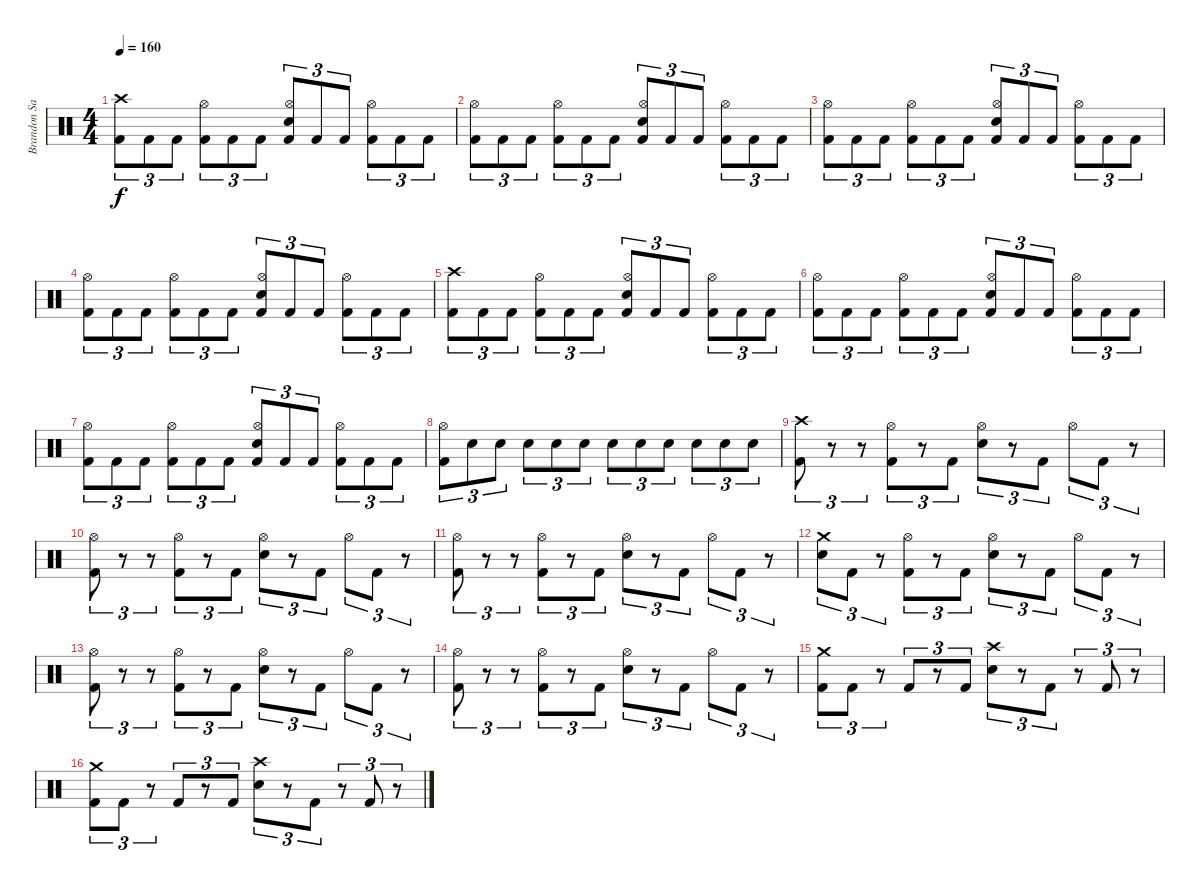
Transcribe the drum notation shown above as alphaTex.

\track ("Brandon Saller" "Brandon Sa") {instrument percussion}
\staff {score}
\articulation defaults
\ts (4 4)
\tempo 160
\clef neutral
\ks c
("Crash high (hit)" "Kick (hit) 2").8{tu (3 2) dy f} "Kick (hit) 2".8{tu (3 2)} "Kick (hit) 2".8{tu (3 2)} ("Hi-Hat (open)" "Kick (hit) 2").8{tu (3 2)} "Kick (hit) 2".8{tu (3 2)} "Kick (hit) 2".8{tu (3 2)} ("Hi-Hat (open)" "Snare (hit) 2" "Kick (hit) 2").8{tu (3 2)} "Kick (hit) 2".8{tu (3 2)} "Kick (hit) 2".8{tu (3 2)} ("Hi-Hat (open)" "Kick (hit) 2").8{tu (3 2)} "Kick (hit) 2".8{tu (3 2)} "Kick (hit) 2".8{tu (3 2)} |
("Hi-Hat (open)" "Kick (hit) 2").8{tu (3 2)} "Kick (hit) 2".8{tu (3 2)} "Kick (hit) 2".8{tu (3 2)} ("Hi-Hat (open)" "Kick (hit) 2").8{tu (3 2)} "Kick (hit) 2".8{tu (3 2)} "Kick (hit) 2".8{tu (3 2)} ("Hi-Hat (open)" "Snare (hit) 2" "Kick (hit) 2").8{tu (3 2)} "Kick (hit) 2".8{tu (3 2)} "Kick (hit) 2".8{tu (3 2)} ("Hi-Hat (open)" "Kick (hit) 2").8{tu (3 2)} "Kick (hit) 2".8{tu (3 2)} "Kick (hit) 2".8{tu (3 2)} |
("Hi-Hat (open)" "Kick (hit) 2").8{tu (3 2)} "Kick (hit) 2".8{tu (3 2)} "Kick (hit) 2".8{tu (3 2)} ("Hi-Hat (open)" "Kick (hit) 2").8{tu (3 2)} "Kick (hit) 2".8{tu (3 2)} "Kick (hit) 2".8{tu (3 2)} ("Hi-Hat (open)" "Snare (hit) 2" "Kick (hit) 2").8{tu (3 2)} "Kick (hit) 2".8{tu (3 2)} "Kick (hit) 2".8{tu (3 2)} ("Hi-Hat (open)" "Kick (hit) 2").8{tu (3 2)} "Kick (hit) 2".8{tu (3 2)} "Kick (hit) 2".8{tu (3 2)} |
("Hi-Hat (open)" "Kick (hit) 2").8{tu (3 2)} "Kick (hit) 2".8{tu (3 2)} "Kick (hit) 2".8{tu (3 2)} ("Hi-Hat (open)" "Kick (hit) 2").8{tu (3 2)} "Kick (hit) 2".8{tu (3 2)} "Kick (hit) 2".8{tu (3 2)} ("Hi-Hat (open)" "Snare (hit) 2" "Kick (hit) 2").8{tu (3 2)} "Kick (hit) 2".8{tu (3 2)} "Kick (hit) 2".8{tu (3 2)} ("Hi-Hat (open)" "Kick (hit) 2").8{tu (3 2)} "Kick (hit) 2".8{tu (3 2)} "Kick (hit) 2".8{tu (3 2)} |
("Crash high (hit)" "Kick (hit) 2").8{tu (3 2)} "Kick (hit) 2".8{tu (3 2)} "Kick (hit) 2".8{tu (3 2)} ("Hi-Hat (open)" "Kick (hit) 2").8{tu (3 2)} "Kick (hit) 2".8{tu (3 2)} "Kick (hit) 2".8{tu (3 2)} ("Hi-Hat (open)" "Snare (hit) 2" "Kick (hit) 2").8{tu (3 2)} "Kick (hit) 2".8{tu (3 2)} "Kick (hit) 2".8{tu (3 2)} ("Hi-Hat (open)" "Kick (hit) 2").8{tu (3 2)} "Kick (hit) 2".8{tu (3 2)} "Kick (hit) 2".8{tu (3 2)} |
("Hi-Hat (open)" "Kick (hit) 2").8{tu (3 2)} "Kick (hit) 2".8{tu (3 2)} "Kick (hit) 2".8{tu (3 2)} ("Hi-Hat (open)" "Kick (hit) 2").8{tu (3 2)} "Kick (hit) 2".8{tu (3 2)} "Kick (hit) 2".8{tu (3 2)} ("Hi-Hat (open)" "Snare (hit) 2" "Kick (hit) 2").8{tu (3 2)} "Kick (hit) 2".8{tu (3 2)} "Kick (hit) 2".8{tu (3 2)} ("Hi-Hat (open)" "Kick (hit) 2").8{tu (3 2)} "Kick (hit) 2".8{tu (3 2)} "Kick (hit) 2".8{tu (3 2)} |
("Hi-Hat (open)" "Kick (hit) 2").8{tu (3 2)} "Kick (hit) 2".8{tu (3 2)} "Kick (hit) 2".8{tu (3 2)} ("Hi-Hat (open)" "Kick (hit) 2").8{tu (3 2)} "Kick (hit) 2".8{tu (3 2)} "Kick (hit) 2".8{tu (3 2)} ("Hi-Hat (open)" "Snare (hit) 2" "Kick (hit) 2").8{tu (3 2)} "Kick (hit) 2".8{tu (3 2)} "Kick (hit) 2".8{tu (3 2)} ("Hi-Hat (open)" "Kick (hit) 2").8{tu (3 2)} "Kick (hit) 2".8{tu (3 2)} "Kick (hit) 2".8{tu (3 2)} |
("Hi-Hat (open)" "Kick (hit) 2").8{tu (3 2)} "Snare (hit) 2".8{tu (3 2)} "Snare (hit) 2".8{tu (3 2)} "Snare (hit) 2".8{tu (3 2)} "Snare (hit) 2".8{tu (3 2)} "Snare (hit) 2".8{tu (3 2)} "Snare (hit) 2".8{tu (3 2)} "Snare (hit) 2".8{tu (3 2)} "Snare (hit) 2".8{tu (3 2)} "Snare (hit) 2".8{tu (3 2)} "Snare (hit) 2".8{tu (3 2)} "Snare (hit) 2".8{tu (3 2)} |
("Crash high (hit)" "Kick (hit) 2").8{tu (3 2)} r.8{tu (3 2)} r.8{tu (3 2)} ("Hi-Hat (open)" "Kick (hit) 2").8{tu (3 2)} r.8{tu (3 2)} "Kick (hit) 2".8{tu (3 2)} ("Hi-Hat (open)" "Snare (hit) 2").8{tu (3 2)} r.8{tu (3 2)} "Kick (hit) 2".8{tu (3 2)} "Hi-Hat (open)".8{tu (3 2)} "Kick (hit) 2".8{tu (3 2)} r.8{tu (3 2)} |
("Hi-Hat (open)" "Kick (hit) 2").8{tu (3 2)} r.8{tu (3 2)} r.8{tu (3 2)} ("Hi-Hat (open)" "Kick (hit) 2").8{tu (3 2)} r.8{tu (3 2)} "Kick (hit) 2".8{tu (3 2)} ("Hi-Hat (open)" "Snare (hit) 2").8{tu (3 2)} r.8{tu (3 2)} "Kick (hit) 2".8{tu (3 2)} "Hi-Hat (open)".8{tu (3 2)} "Kick (hit) 2".8{tu (3 2)} r.8{tu (3 2)} |
("Hi-Hat (open)" "Kick (hit) 2").8{tu (3 2)} r.8{tu (3 2)} r.8{tu (3 2)} ("Hi-Hat (open)" "Kick (hit) 2").8{tu (3 2)} r.8{tu (3 2)} "Kick (hit) 2".8{tu (3 2)} ("Hi-Hat (open)" "Snare (hit) 2").8{tu (3 2)} r.8{tu (3 2)} "Kick (hit) 2".8{tu (3 2)} "Hi-Hat (open)".8{tu (3 2)} "Kick (hit) 2".8{tu (3 2)} r.8{tu (3 2)} |
("Crash medium (hit)" "Snare (hit) 2").8{tu (3 2)} "Kick (hit) 2".8{tu (3 2)} r.8{tu (3 2)} ("Hi-Hat (open)" "Kick (hit) 2").8{tu (3 2)} r.8{tu (3 2)} "Kick (hit) 2".8{tu (3 2)} ("Hi-Hat (open)" "Snare (hit) 2").8{tu (3 2)} r.8{tu (3 2)} "Kick (hit) 2".8{tu (3 2)} "Hi-Hat (open)".8{tu (3 2)} "Kick (hit) 2".8{tu (3 2)} r.8{tu (3 2)} |
("Hi-Hat (open)" "Kick (hit) 2").8{tu (3 2)} r.8{tu (3 2)} r.8{tu (3 2)} ("Hi-Hat (open)" "Kick (hit) 2").8{tu (3 2)} r.8{tu (3 2)} "Kick (hit) 2".8{tu (3 2)} ("Hi-Hat (open)" "Snare (hit) 2").8{tu (3 2)} r.8{tu (3 2)} "Kick (hit) 2".8{tu (3 2)} "Hi-Hat (open)".8{tu (3 2)} "Kick (hit) 2".8{tu (3 2)} r.8{tu (3 2)} |
("Hi-Hat (open)" "Kick (hit) 2").8{tu (3 2)} r.8{tu (3 2)} r.8{tu (3 2)} ("Hi-Hat (open)" "Kick (hit) 2").8{tu (3 2)} r.8{tu (3 2)} "Kick (hit) 2".8{tu (3 2)} ("Hi-Hat (open)" "Snare (hit) 2").8{tu (3 2)} r.8{tu (3 2)} "Kick (hit) 2".8{tu (3 2)} "Hi-Hat (open)".8{tu (3 2)} "Kick (hit) 2".8{tu (3 2)} r.8{tu (3 2)} |
("Crash medium (hit)" "Kick (hit) 2").8{tu (3 2)} "Kick (hit) 2".8{tu (3 2)} r.8{tu (3 2)} "Kick (hit) 2".8{tu (3 2)} r.8{tu (3 2)} "Kick (hit) 2".8{tu (3 2)} ("Crash high (hit)" "Snare (hit) 2").8{tu (3 2)} r.8{tu (3 2)} "Kick (hit) 2".8{tu (3 2)} r.8{tu (3 2)} "Kick (hit) 2".8{tu (3 2)} r.8{tu (3 2)} |
("Crash medium (hit)" "Kick (hit) 2").8{tu (3 2)} "Kick (hit) 2".8{tu (3 2)} r.8{tu (3 2)} "Kick (hit) 2".8{tu (3 2)} r.8{tu (3 2)} "Kick (hit) 2".8{tu (3 2)} ("Crash high (hit)" "Snare (hit) 2").8{tu (3 2)} r.8{tu (3 2)} "Kick (hit) 2".8{tu (3 2)} r.8{tu (3 2)} "Kick (hit) 2".8{tu (3 2)} r.8{tu (3 2)}
